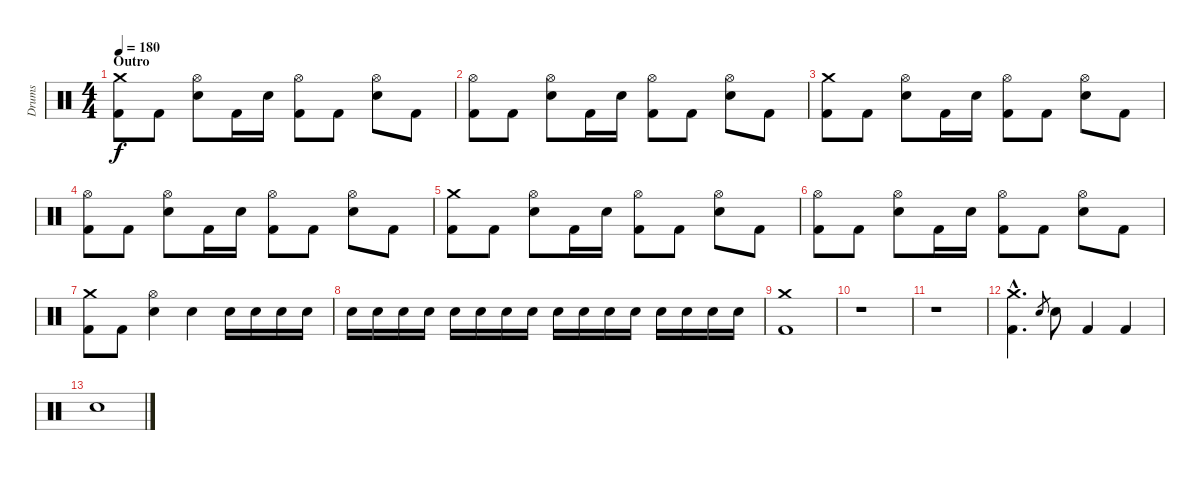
\track ("Drums" "Drums") {instrument percussion}
\staff {score}
\articulation defaults
\ts (4 4)
\section ("" "Outro")
\tempo 180
\clef neutral
\ks c
("Crash medium (hit)" "Kick (hit) 2").8{dy f} "Kick (hit) 2".8 ("Hi-Hat (open)" "Electric Snare (hit)").8 "Kick (hit) 2".16 "Electric Snare (hit)".16 ("Hi-Hat (open)" "Kick (hit) 2").8 "Kick (hit) 2".8 ("Hi-Hat (open)" "Electric Snare (hit)").8 "Kick (hit) 2".8 |
("Hi-Hat (open)" "Kick (hit) 2").8 "Kick (hit) 2".8 ("Hi-Hat (open)" "Electric Snare (hit)").8 "Kick (hit) 2".16 "Electric Snare (hit)".16 ("Hi-Hat (open)" "Kick (hit) 2").8 "Kick (hit) 2".8 ("Hi-Hat (open)" "Electric Snare (hit)").8 "Kick (hit) 2".8 |
("Crash medium (hit)" "Kick (hit) 2").8 "Kick (hit) 2".8 ("Hi-Hat (open)" "Electric Snare (hit)").8 "Kick (hit) 2".16 "Electric Snare (hit)".16 ("Hi-Hat (open)" "Kick (hit) 2").8 "Kick (hit) 2".8 ("Hi-Hat (open)" "Electric Snare (hit)").8 "Kick (hit) 2".8 |
("Hi-Hat (open)" "Kick (hit) 2").8 "Kick (hit) 2".8 ("Hi-Hat (open)" "Electric Snare (hit)").8 "Kick (hit) 2".16 "Electric Snare (hit)".16 ("Hi-Hat (open)" "Kick (hit) 2").8 "Kick (hit) 2".8 ("Hi-Hat (open)" "Electric Snare (hit)").8 "Kick (hit) 2".8 |
("Crash medium (hit)" "Kick (hit) 2").8 "Kick (hit) 2".8 ("Hi-Hat (open)" "Electric Snare (hit)").8 "Kick (hit) 2".16 "Electric Snare (hit)".16 ("Hi-Hat (open)" "Kick (hit) 2").8 "Kick (hit) 2".8 ("Hi-Hat (open)" "Electric Snare (hit)").8 "Kick (hit) 2".8 |
("Hi-Hat (open)" "Kick (hit) 2").8 "Kick (hit) 2".8 ("Hi-Hat (open)" "Electric Snare (hit)").8 "Kick (hit) 2".16 "Electric Snare (hit)".16 ("Hi-Hat (open)" "Kick (hit) 2").8 "Kick (hit) 2".8 ("Hi-Hat (open)" "Electric Snare (hit)").8 "Kick (hit) 2".8 |
("Crash medium (hit)" "Kick (hit) 2").8 "Kick (hit) 2".8 ("Hi-Hat (open)" "Electric Snare (hit)").4 "Electric Snare (hit)".4 "Electric Snare (hit)".16 "Electric Snare (hit)".16 "Electric Snare (hit)".16 "Electric Snare (hit)".16 |
"Electric Snare (hit)".16 "Electric Snare (hit)".16 "Electric Snare (hit)".16 "Electric Snare (hit)".16 "Electric Snare (hit)".16 "Electric Snare (hit)".16 "Electric Snare (hit)".16 "Electric Snare (hit)".16 "Electric Snare (hit)".16 "Electric Snare (hit)".16 "Electric Snare (hit)".16 "Electric Snare (hit)".16 "Electric Snare (hit)".16 "Electric Snare (hit)".16 "Electric Snare (hit)".16 "Electric Snare (hit)".16 |
("Crash medium (hit)" "Kick (hit) 2").1 |
r.1 |
r.1 |
("Crash medium (hit)"{hac} "Kick (hit) 2"{hac}).4{d} "Electric Snare (hit)".8{gr} "Electric Snare (hit)".8 "Kick (hit) 2".4 "Kick (hit) 2".4 |
"Electric Snare (hit)".1
